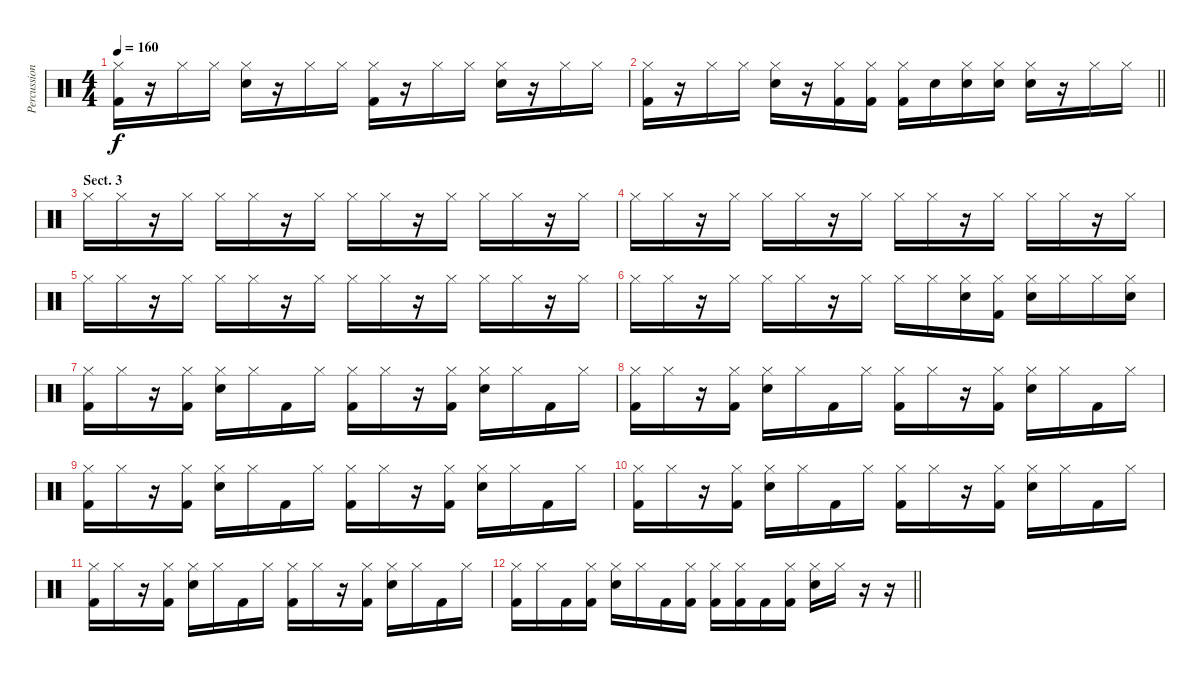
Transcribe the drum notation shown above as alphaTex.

\track ("Percussion" "Percussion") {instrument percussion}
\staff {score}
\articulation defaults
\ts (4 4)
\tempo 160
\clef neutral
\ks c
("Hi-Hat (closed)" "Kick (hit) 2").16{dy f} r.16 "Hi-Hat (closed)".16 "Hi-Hat (closed)".16 ("Hi-Hat (closed)" "Snare (hit) 2").16 r.16 "Hi-Hat (closed)".16 "Hi-Hat (closed)".16 ("Hi-Hat (closed)" "Kick (hit) 2").16 r.16 "Hi-Hat (closed)".16 "Hi-Hat (closed)".16 ("Hi-Hat (closed)" "Snare (hit) 2").16 r.16 "Hi-Hat (closed)".16 "Hi-Hat (closed)".16 |
\barLineRight lightlight
("Hi-Hat (closed)" "Kick (hit) 2").16 r.16 "Hi-Hat (closed)".16 "Hi-Hat (closed)".16 ("Hi-Hat (closed)" "Snare (hit) 2").16 r.16 ("Hi-Hat (closed)" "Kick (hit) 2").16 ("Hi-Hat (closed)" "Kick (hit) 2").16 ("Hi-Hat (closed)" "Kick (hit) 2").16 "Snare (hit) 2".16 ("Hi-Hat (closed)" "Snare (hit) 2").16 ("Hi-Hat (closed)" "Snare (hit) 2").16 ("Hi-Hat (closed)" "Snare (hit) 2").16 r.16 "Hi-Hat (closed)".16 "Hi-Hat (closed)".16 |
\section ("" "Sect. 3")
"Hi-Hat (closed)".16 "Hi-Hat (closed)".16 r.16 "Hi-Hat (closed)".16 "Hi-Hat (closed)".16 "Hi-Hat (closed)".16 r.16 "Hi-Hat (closed)".16 "Hi-Hat (closed)".16 "Hi-Hat (closed)".16 r.16 "Hi-Hat (closed)".16 "Hi-Hat (closed)".16 "Hi-Hat (closed)".16 r.16 "Hi-Hat (closed)".16 |
"Hi-Hat (closed)".16 "Hi-Hat (closed)".16 r.16 "Hi-Hat (closed)".16 "Hi-Hat (closed)".16 "Hi-Hat (closed)".16 r.16 "Hi-Hat (closed)".16 "Hi-Hat (closed)".16 "Hi-Hat (closed)".16 r.16 "Hi-Hat (closed)".16 "Hi-Hat (closed)".16 "Hi-Hat (closed)".16 r.16 "Hi-Hat (closed)".16 |
"Hi-Hat (closed)".16 "Hi-Hat (closed)".16 r.16 "Hi-Hat (closed)".16 "Hi-Hat (closed)".16 "Hi-Hat (closed)".16 r.16 "Hi-Hat (closed)".16 "Hi-Hat (closed)".16 "Hi-Hat (closed)".16 r.16 "Hi-Hat (closed)".16 "Hi-Hat (closed)".16 "Hi-Hat (closed)".16 r.16 "Hi-Hat (closed)".16 |
"Hi-Hat (closed)".16 "Hi-Hat (closed)".16 r.16 "Hi-Hat (closed)".16 "Hi-Hat (closed)".16 "Hi-Hat (closed)".16 r.16 "Hi-Hat (closed)".16 "Hi-Hat (closed)".16 "Hi-Hat (closed)".16 ("Hi-Hat (closed)" "Snare (hit) 2").16 ("Hi-Hat (closed)" "Kick (hit) 2").16 ("Hi-Hat (closed)" "Snare (hit) 2").16 "Hi-Hat (closed)".16 "Hi-Hat (closed)".16 ("Hi-Hat (closed)" "Snare (hit) 2").16 |
("Hi-Hat (closed)" "Kick (hit) 2").16 "Hi-Hat (closed)".16 r.16 ("Hi-Hat (closed)" "Kick (hit) 2").16 ("Hi-Hat (closed)" "Snare (hit) 2").16 "Hi-Hat (closed)".16 "Kick (hit) 2".16 "Hi-Hat (closed)".16 ("Hi-Hat (closed)" "Kick (hit) 2").16 "Hi-Hat (closed)".16 r.16 ("Hi-Hat (closed)" "Kick (hit) 2").16 ("Hi-Hat (closed)" "Snare (hit) 2").16 "Hi-Hat (closed)".16 "Kick (hit) 2".16 "Hi-Hat (closed)".16 |
("Hi-Hat (closed)" "Kick (hit) 2").16 "Hi-Hat (closed)".16 r.16 ("Hi-Hat (closed)" "Kick (hit) 2").16 ("Hi-Hat (closed)" "Snare (hit) 2").16 "Hi-Hat (closed)".16 "Kick (hit) 2".16 "Hi-Hat (closed)".16 ("Hi-Hat (closed)" "Kick (hit) 2").16 "Hi-Hat (closed)".16 r.16 ("Hi-Hat (closed)" "Kick (hit) 2").16 ("Hi-Hat (closed)" "Snare (hit) 2").16 "Hi-Hat (closed)".16 "Kick (hit) 2".16 "Hi-Hat (closed)".16 |
("Hi-Hat (closed)" "Kick (hit) 2").16 "Hi-Hat (closed)".16 r.16 ("Hi-Hat (closed)" "Kick (hit) 2").16 ("Hi-Hat (closed)" "Snare (hit) 2").16 "Hi-Hat (closed)".16 "Kick (hit) 2".16 "Hi-Hat (closed)".16 ("Hi-Hat (closed)" "Kick (hit) 2").16 "Hi-Hat (closed)".16 r.16 ("Hi-Hat (closed)" "Kick (hit) 2").16 ("Hi-Hat (closed)" "Snare (hit) 2").16 "Hi-Hat (closed)".16 "Kick (hit) 2".16 "Hi-Hat (closed)".16 |
("Hi-Hat (closed)" "Kick (hit) 2").16 "Hi-Hat (closed)".16 r.16 ("Hi-Hat (closed)" "Kick (hit) 2").16 ("Hi-Hat (closed)" "Snare (hit) 2").16 "Hi-Hat (closed)".16 "Kick (hit) 2".16 "Hi-Hat (closed)".16 ("Hi-Hat (closed)" "Kick (hit) 2").16 "Hi-Hat (closed)".16 r.16 ("Hi-Hat (closed)" "Kick (hit) 2").16 ("Hi-Hat (closed)" "Snare (hit) 2").16 "Hi-Hat (closed)".16 "Kick (hit) 2".16 "Hi-Hat (closed)".16 |
("Hi-Hat (closed)" "Kick (hit) 2").16 "Hi-Hat (closed)".16 r.16 ("Hi-Hat (closed)" "Kick (hit) 2").16 ("Hi-Hat (closed)" "Snare (hit) 2").16 "Hi-Hat (closed)".16 "Kick (hit) 2".16 "Hi-Hat (closed)".16 ("Hi-Hat (closed)" "Kick (hit) 2").16 "Hi-Hat (closed)".16 r.16 ("Hi-Hat (closed)" "Kick (hit) 2").16 ("Hi-Hat (closed)" "Snare (hit) 2").16 "Hi-Hat (closed)".16 "Kick (hit) 2".16 "Hi-Hat (closed)".16 |
\barLineRight lightlight
("Hi-Hat (closed)" "Kick (hit) 2").16 "Hi-Hat (closed)".16 "Kick (hit) 2".16 ("Hi-Hat (closed)" "Kick (hit) 2").16 ("Hi-Hat (closed)" "Snare (hit) 2").16 "Hi-Hat (closed)".16 "Kick (hit) 2".16 ("Hi-Hat (closed)" "Kick (hit) 2").16 ("Hi-Hat (closed)" "Kick (hit) 2").16 ("Hi-Hat (closed)" "Kick (hit) 2").16 "Kick (hit) 2".16 ("Hi-Hat (closed)" "Kick (hit) 2").16 ("Hi-Hat (closed)" "Snare (hit) 2").16 "Hi-Hat (closed)".16 r.16 r.16
